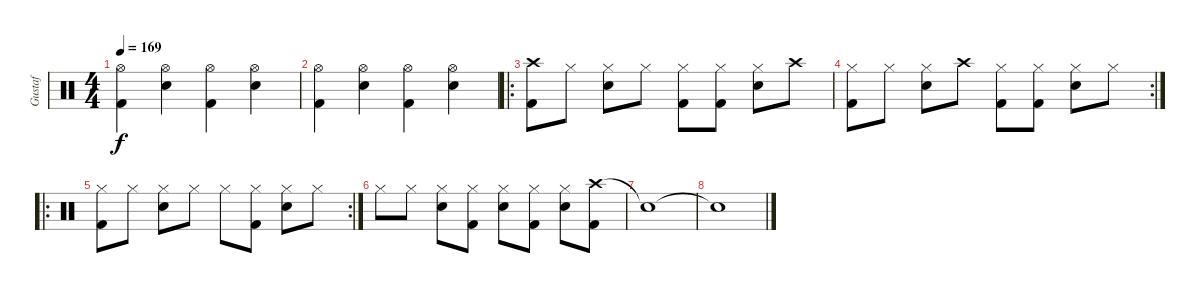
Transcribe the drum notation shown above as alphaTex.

\track ("Gustaf" "Gustaf") {instrument percussion}
\staff {score}
\articulation defaults
\ts (4 4)
\tempo 169
\clef neutral
\ks c
("Hi-Hat (open)" "Kick (hit) 2").4{dy f} ("Hi-Hat (open)" "Snare (hit) 2").4 ("Hi-Hat (open)" "Kick (hit) 2").4 ("Hi-Hat (open)" "Snare (hit) 2").4 |
("Hi-Hat (open)" "Kick (hit) 2").4 ("Hi-Hat (open)" "Snare (hit) 2").4 ("Hi-Hat (open)" "Kick (hit) 2").4 ("Hi-Hat (open)" "Snare (hit) 2").4 |
\ro
("Crash high (hit)" "Kick (hit) 2").8 "Hi-Hat (closed)".8 ("Hi-Hat (closed)" "Snare (hit) 2").8 "Hi-Hat (closed)".8 ("Hi-Hat (closed)" "Kick (hit) 2").8 ("Hi-Hat (closed)" "Kick (hit) 2").8 ("Hi-Hat (closed)" "Snare (hit) 2").8 "Crash high (hit)".8 |
\rc 2
("Hi-Hat (closed)" "Kick (hit) 2").8 "Hi-Hat (closed)".8 ("Hi-Hat (closed)" "Snare (hit) 2").8 "Crash high (hit)".8 ("Hi-Hat (closed)" "Kick (hit) 2").8 ("Hi-Hat (closed)" "Kick (hit) 2").8 ("Hi-Hat (closed)" "Snare (hit) 2").8 "Hi-Hat (closed)".8 |
\ro
\rc 2
("Hi-Hat (closed)" "Kick (hit) 2").8 "Hi-Hat (closed)".8 ("Hi-Hat (closed)" "Snare (hit) 2").8 "Hi-Hat (closed)".8 "Hi-Hat (closed)".8 ("Hi-Hat (closed)" "Kick (hit) 2").8 ("Hi-Hat (closed)" "Snare (hit) 2").8 "Hi-Hat (closed)".8 |
"Hi-Hat (closed)".8 "Hi-Hat (closed)".8 ("Hi-Hat (closed)" "Snare (hit) 2").8 ("Hi-Hat (closed)" "Kick (hit) 2").8 ("Hi-Hat (closed)" "Snare (hit) 2").8 ("Hi-Hat (closed)" "Kick (hit) 2").8 ("Hi-Hat (closed)" "Snare (hit) 2").8 ("Crash high (hit)" "Kick (hit) 2").8 |
"Snare (hit)"{t}.1 |
"Snare (hit)"{t}.1
